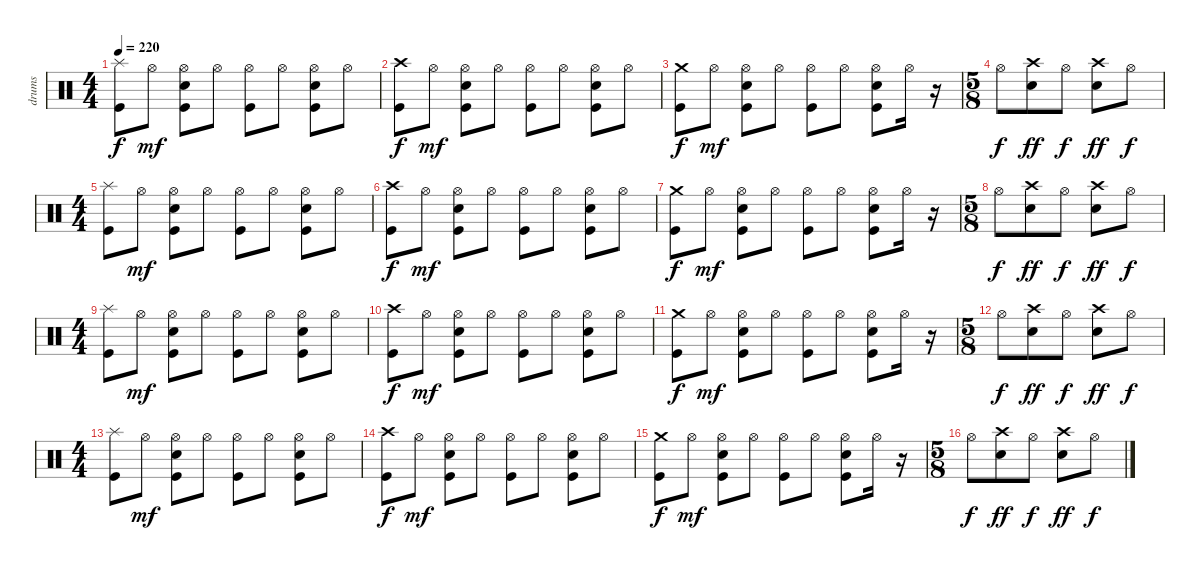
\track ("drums" "drums") {instrument percussion}
\staff {score}
\articulation defaults
\ts (4 4)
\tempo 220
\clef neutral
\ks c
("Splash (hit)" "Kick (hit)").8{dy f} "Hi-Hat (open)".8{dy mf} ("Hi-Hat (open)" "Snare (hit) 2" "Kick (hit)").8 "Hi-Hat (open)".8 ("Hi-Hat (open)" "Kick (hit)").8 "Hi-Hat (open)".8 ("Hi-Hat (open)" "Snare (hit) 2" "Kick (hit)").8 "Hi-Hat (open)".8 |
("Crash high (hit)" "Kick (hit)").8{dy f} "Hi-Hat (open)".8{dy mf} ("Hi-Hat (open)" "Snare (hit) 2" "Kick (hit)").8 "Hi-Hat (open)".8 ("Hi-Hat (open)" "Kick (hit)").8 "Hi-Hat (open)".8 ("Hi-Hat (open)" "Snare (hit) 2" "Kick (hit)").8 "Hi-Hat (open)".8 |
("Crash medium (hit)" "Kick (hit)").8{dy f} "Hi-Hat (open)".8{dy mf} ("Hi-Hat (open)" "Snare (hit) 2" "Kick (hit)").8 "Hi-Hat (open)".8 ("Hi-Hat (open)" "Kick (hit)").8 "Hi-Hat (open)".8 ("Hi-Hat (open)" "Snare (hit) 2" "Kick (hit)").8 "Hi-Hat (open)".16 r.16 |
\ts (5 8)
"Hi-Hat (open)".8{dy f} ("Crash high (hit)" "Snare (hit) 2").8{dy ff} "Hi-Hat (open)".8{dy f} ("Crash high (hit)" "Snare (hit) 2").8{dy ff} "Hi-Hat (open)".8{dy f} |
\ts (4 4)
("Splash (hit)" "Kick (hit)").8 "Hi-Hat (open)".8{dy mf} ("Hi-Hat (open)" "Snare (hit) 2" "Kick (hit)").8 "Hi-Hat (open)".8 ("Hi-Hat (open)" "Kick (hit)").8 "Hi-Hat (open)".8 ("Hi-Hat (open)" "Snare (hit) 2" "Kick (hit)").8 "Hi-Hat (open)".8 |
("Crash high (hit)" "Kick (hit)").8{dy f} "Hi-Hat (open)".8{dy mf} ("Hi-Hat (open)" "Snare (hit) 2" "Kick (hit)").8 "Hi-Hat (open)".8 ("Hi-Hat (open)" "Kick (hit)").8 "Hi-Hat (open)".8 ("Hi-Hat (open)" "Snare (hit) 2" "Kick (hit)").8 "Hi-Hat (open)".8 |
("Crash medium (hit)" "Kick (hit)").8{dy f} "Hi-Hat (open)".8{dy mf} ("Hi-Hat (open)" "Snare (hit) 2" "Kick (hit)").8 "Hi-Hat (open)".8 ("Hi-Hat (open)" "Kick (hit)").8 "Hi-Hat (open)".8 ("Hi-Hat (open)" "Snare (hit) 2" "Kick (hit)").8 "Hi-Hat (open)".16 r.16 |
\ts (5 8)
"Hi-Hat (open)".8{dy f} ("Crash high (hit)" "Snare (hit) 2").8{dy ff} "Hi-Hat (open)".8{dy f} ("Crash high (hit)" "Snare (hit) 2").8{dy ff} "Hi-Hat (open)".8{dy f} |
\ts (4 4)
("Splash (hit)" "Kick (hit)").8 "Hi-Hat (open)".8{dy mf} ("Hi-Hat (open)" "Snare (hit) 2" "Kick (hit)").8 "Hi-Hat (open)".8 ("Hi-Hat (open)" "Kick (hit)").8 "Hi-Hat (open)".8 ("Hi-Hat (open)" "Snare (hit) 2" "Kick (hit)").8 "Hi-Hat (open)".8 |
("Crash high (hit)" "Kick (hit)").8{dy f} "Hi-Hat (open)".8{dy mf} ("Hi-Hat (open)" "Snare (hit) 2" "Kick (hit)").8 "Hi-Hat (open)".8 ("Hi-Hat (open)" "Kick (hit)").8 "Hi-Hat (open)".8 ("Hi-Hat (open)" "Snare (hit) 2" "Kick (hit)").8 "Hi-Hat (open)".8 |
("Crash medium (hit)" "Kick (hit)").8{dy f} "Hi-Hat (open)".8{dy mf} ("Hi-Hat (open)" "Snare (hit) 2" "Kick (hit)").8 "Hi-Hat (open)".8 ("Hi-Hat (open)" "Kick (hit)").8 "Hi-Hat (open)".8 ("Hi-Hat (open)" "Snare (hit) 2" "Kick (hit)").8 "Hi-Hat (open)".16 r.16 |
\ts (5 8)
"Hi-Hat (open)".8{dy f} ("Crash high (hit)" "Snare (hit) 2").8{dy ff} "Hi-Hat (open)".8{dy f} ("Crash high (hit)" "Snare (hit) 2").8{dy ff} "Hi-Hat (open)".8{dy f} |
\ts (4 4)
("Splash (hit)" "Kick (hit)").8 "Hi-Hat (open)".8{dy mf} ("Hi-Hat (open)" "Snare (hit) 2" "Kick (hit)").8 "Hi-Hat (open)".8 ("Hi-Hat (open)" "Kick (hit)").8 "Hi-Hat (open)".8 ("Hi-Hat (open)" "Snare (hit) 2" "Kick (hit)").8 "Hi-Hat (open)".8 |
("Crash high (hit)" "Kick (hit)").8{dy f} "Hi-Hat (open)".8{dy mf} ("Hi-Hat (open)" "Snare (hit) 2" "Kick (hit)").8 "Hi-Hat (open)".8 ("Hi-Hat (open)" "Kick (hit)").8 "Hi-Hat (open)".8 ("Hi-Hat (open)" "Snare (hit) 2" "Kick (hit)").8 "Hi-Hat (open)".8 |
("Crash medium (hit)" "Kick (hit)").8{dy f} "Hi-Hat (open)".8{dy mf} ("Hi-Hat (open)" "Snare (hit) 2" "Kick (hit)").8 "Hi-Hat (open)".8 ("Hi-Hat (open)" "Kick (hit)").8 "Hi-Hat (open)".8 ("Hi-Hat (open)" "Snare (hit) 2" "Kick (hit)").8 "Hi-Hat (open)".16 r.16 |
\ts (5 8)
"Hi-Hat (open)".8{dy f} ("Crash high (hit)" "Snare (hit) 2").8{dy ff} "Hi-Hat (open)".8{dy f} ("Crash high (hit)" "Snare (hit) 2").8{dy ff} "Hi-Hat (open)".8{dy f}
